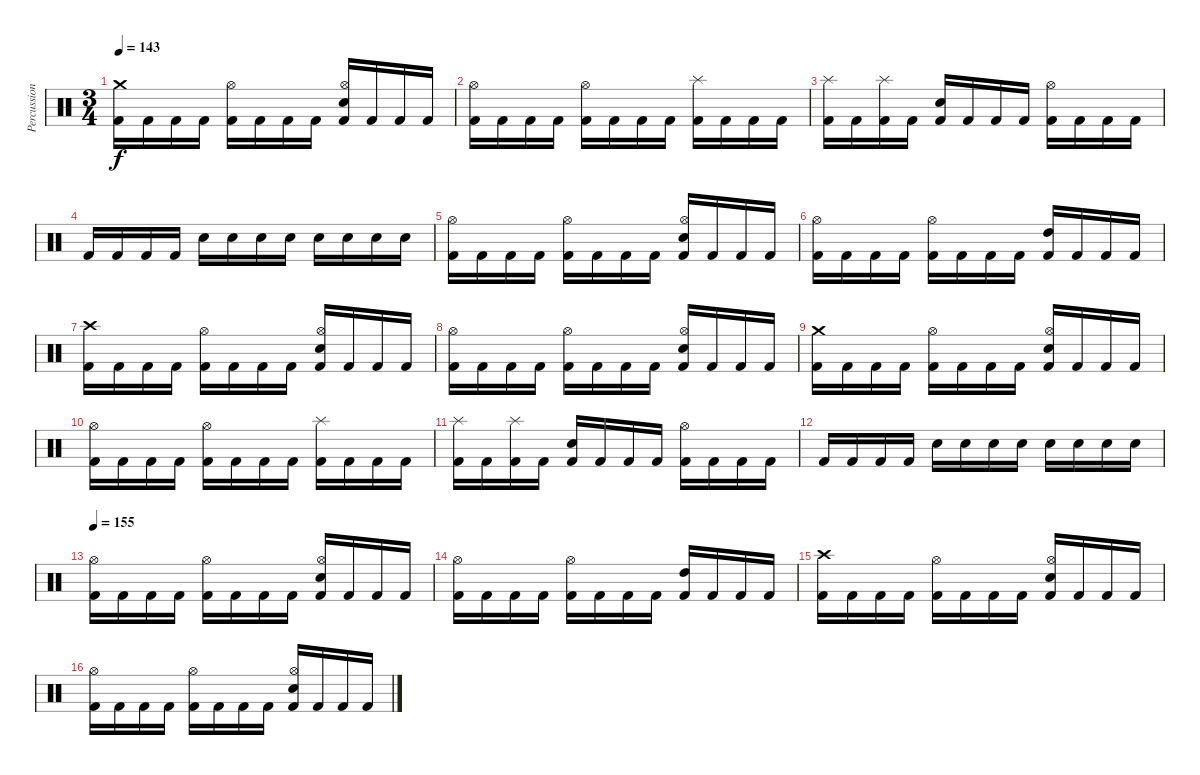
\track ("Percussion" "Percussion") {instrument percussion}
\staff {score}
\articulation defaults
\ts (3 4)
\tempo 143
\clef neutral
\ks c
("Crash medium (hit)" "Kick (hit) 2").16{dy f} "Kick (hit) 2".16 "Kick (hit) 2".16 "Kick (hit) 2".16 ("Hi-Hat (open)" "Kick (hit) 2").16 "Kick (hit) 2".16 "Kick (hit) 2".16 "Kick (hit) 2".16 ("Hi-Hat (open)" "Snare (hit) 2" "Kick (hit) 2").16 "Kick (hit) 2".16 "Kick (hit) 2".16 "Kick (hit) 2".16 |
("Hi-Hat (open)" "Kick (hit) 2").16 "Kick (hit) 2".16 "Kick (hit) 2".16 "Kick (hit) 2".16 ("Hi-Hat (open)" "Kick (hit) 2").16 "Kick (hit) 2".16 "Kick (hit) 2".16 "Kick (hit) 2".16 ("Splash (hit)" "Kick (hit) 2").16 "Kick (hit) 2".16 "Kick (hit) 2".16 "Kick (hit) 2".16 |
("Splash (hit)" "Kick (hit) 2").16 "Kick (hit) 2".16 ("Splash (hit)" "Kick (hit) 2").16 "Kick (hit) 2".16 ("Snare (hit) 2" "Kick (hit) 2").16 "Kick (hit) 2".16 "Kick (hit) 2".16 "Kick (hit) 2".16 ("Hi-Hat (open)" "Kick (hit) 2").16 "Kick (hit) 2".16 "Kick (hit) 2".16 "Kick (hit) 2".16 |
"Kick (hit) 2".16 "Kick (hit) 2".16 "Kick (hit) 2".16 "Kick (hit) 2".16 "Snare (hit) 2".16 "Snare (hit) 2".16 "Snare (hit) 2".16 "Snare (hit) 2".16 "Snare (hit) 2".16 "Snare (hit) 2".16 "Snare (hit) 2".16 "Snare (hit) 2".16 |
("Hi-Hat (open)" "Kick (hit) 2").16 "Kick (hit) 2".16 "Kick (hit) 2".16 "Kick (hit) 2".16 ("Hi-Hat (open)" "Kick (hit) 2").16 "Kick (hit) 2".16 "Kick (hit) 2".16 "Kick (hit) 2".16 ("Hi-Hat (open)" "Snare (hit) 2" "Kick (hit) 2").16 "Kick (hit) 2".16 "Kick (hit) 2".16 "Kick (hit) 2".16 |
("Hi-Hat (open)" "Kick (hit) 2").16 "Kick (hit) 2".16 "Kick (hit) 2".16 "Kick (hit) 2".16 ("Hi-Hat (open)" "Kick (hit) 2").16 "Kick (hit) 2".16 "Kick (hit) 2".16 "Kick (hit) 2".16 ("High Tom (hit)" "Kick (hit) 2").16 "Kick (hit) 2".16 "Kick (hit) 2".16 "Kick (hit) 2".16 |
("Crash high (hit)" "Kick (hit) 2").16 "Kick (hit) 2".16 "Kick (hit) 2".16 "Kick (hit) 2".16 ("Hi-Hat (open)" "Kick (hit) 2").16 "Kick (hit) 2".16 "Kick (hit) 2".16 "Kick (hit) 2".16 ("Hi-Hat (open)" "Snare (hit) 2" "Kick (hit) 2").16 "Kick (hit) 2".16 "Kick (hit) 2".16 "Kick (hit) 2".16 |
("Hi-Hat (open)" "Kick (hit) 2").16 "Kick (hit) 2".16 "Kick (hit) 2".16 "Kick (hit) 2".16 ("Hi-Hat (open)" "Kick (hit) 2").16 "Kick (hit) 2".16 "Kick (hit) 2".16 "Kick (hit) 2".16 ("Hi-Hat (open)" "Snare (hit) 2" "Kick (hit) 2").16 "Kick (hit) 2".16 "Kick (hit) 2".16 "Kick (hit) 2".16 |
("Crash medium (hit)" "Kick (hit) 2").16 "Kick (hit) 2".16 "Kick (hit) 2".16 "Kick (hit) 2".16 ("Hi-Hat (open)" "Kick (hit) 2").16 "Kick (hit) 2".16 "Kick (hit) 2".16 "Kick (hit) 2".16 ("Hi-Hat (open)" "Snare (hit) 2" "Kick (hit) 2").16 "Kick (hit) 2".16 "Kick (hit) 2".16 "Kick (hit) 2".16 |
("Hi-Hat (open)" "Kick (hit) 2").16 "Kick (hit) 2".16 "Kick (hit) 2".16 "Kick (hit) 2".16 ("Hi-Hat (open)" "Kick (hit) 2").16 "Kick (hit) 2".16 "Kick (hit) 2".16 "Kick (hit) 2".16 ("Splash (hit)" "Kick (hit) 2").16 "Kick (hit) 2".16 "Kick (hit) 2".16 "Kick (hit) 2".16 |
("Splash (hit)" "Kick (hit) 2").16 "Kick (hit) 2".16 ("Splash (hit)" "Kick (hit) 2").16 "Kick (hit) 2".16 ("Snare (hit) 2" "Kick (hit) 2").16 "Kick (hit) 2".16 "Kick (hit) 2".16 "Kick (hit) 2".16 ("Hi-Hat (open)" "Kick (hit) 2").16 "Kick (hit) 2".16 "Kick (hit) 2".16 "Kick (hit) 2".16 |
"Kick (hit) 2".16 "Kick (hit) 2".16 "Kick (hit) 2".16 "Kick (hit) 2".16 "Snare (hit) 2".16 "Snare (hit) 2".16 "Snare (hit) 2".16 "Snare (hit) 2".16 "Snare (hit) 2".16 "Snare (hit) 2".16 "Snare (hit) 2".16 "Snare (hit) 2".16 |
\tempo 155
("Hi-Hat (open)" "Kick (hit) 2").16 "Kick (hit) 2".16 "Kick (hit) 2".16 "Kick (hit) 2".16 ("Hi-Hat (open)" "Kick (hit) 2").16 "Kick (hit) 2".16 "Kick (hit) 2".16 "Kick (hit) 2".16 ("Hi-Hat (open)" "Snare (hit) 2" "Kick (hit) 2").16 "Kick (hit) 2".16 "Kick (hit) 2".16 "Kick (hit) 2".16 |
("Hi-Hat (open)" "Kick (hit) 2").16 "Kick (hit) 2".16 "Kick (hit) 2".16 "Kick (hit) 2".16 ("Hi-Hat (open)" "Kick (hit) 2").16 "Kick (hit) 2".16 "Kick (hit) 2".16 "Kick (hit) 2".16 ("High Tom (hit)" "Kick (hit) 2").16 "Kick (hit) 2".16 "Kick (hit) 2".16 "Kick (hit) 2".16 |
("Crash high (hit)" "Kick (hit) 2").16 "Kick (hit) 2".16 "Kick (hit) 2".16 "Kick (hit) 2".16 ("Hi-Hat (open)" "Kick (hit) 2").16 "Kick (hit) 2".16 "Kick (hit) 2".16 "Kick (hit) 2".16 ("Hi-Hat (open)" "Snare (hit) 2" "Kick (hit) 2").16 "Kick (hit) 2".16 "Kick (hit) 2".16 "Kick (hit) 2".16 |
("Hi-Hat (open)" "Kick (hit) 2").16 "Kick (hit) 2".16 "Kick (hit) 2".16 "Kick (hit) 2".16 ("Hi-Hat (open)" "Kick (hit) 2").16 "Kick (hit) 2".16 "Kick (hit) 2".16 "Kick (hit) 2".16 ("Hi-Hat (open)" "Snare (hit) 2" "Kick (hit) 2").16 "Kick (hit) 2".16 "Kick (hit) 2".16 "Kick (hit) 2".16
